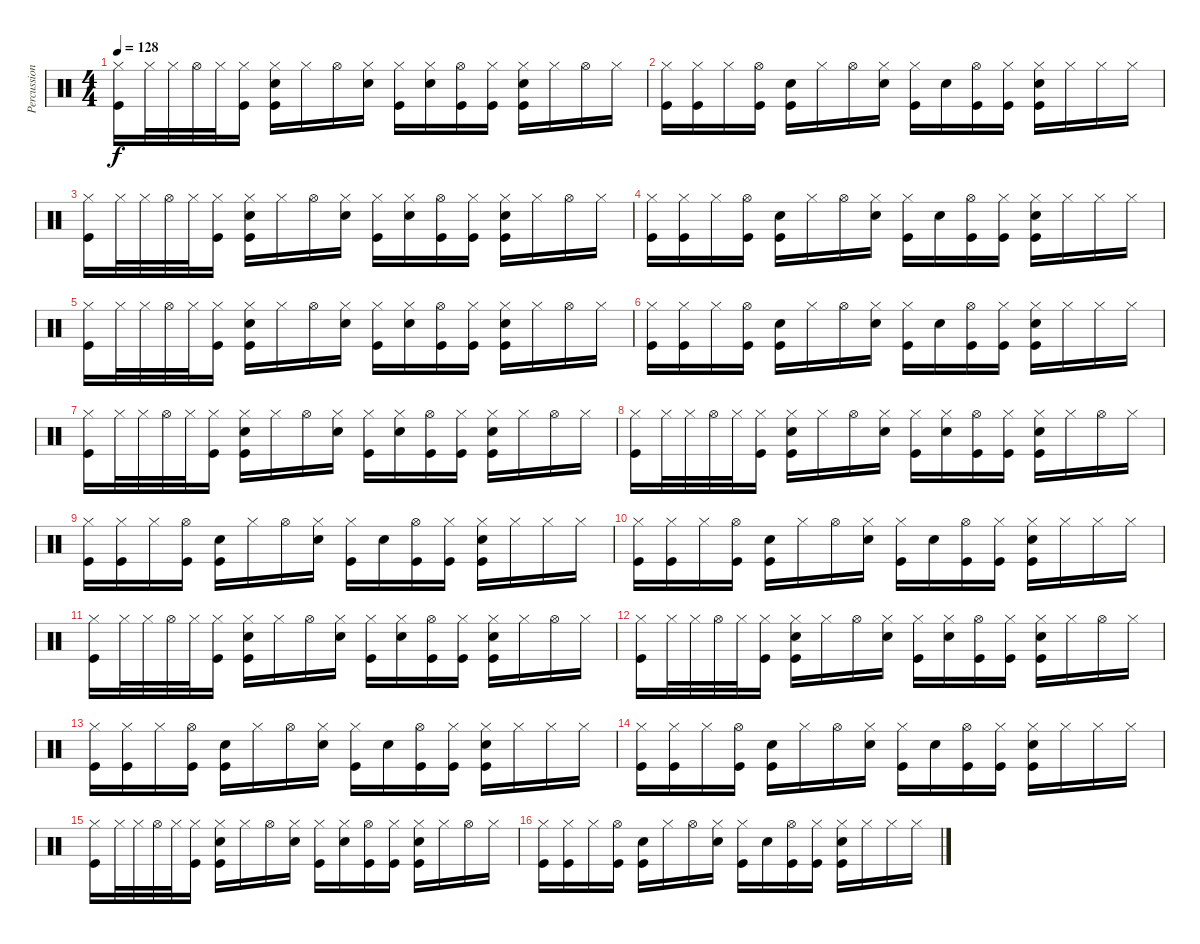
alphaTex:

\track ("Percussion" "Percussion") {instrument percussion}
\staff {score}
\articulation defaults
\ts (4 4)
\tempo 128
\clef neutral
\ks c
("Kick (hit)" "Hi-Hat (closed)").16{dy f} "Hi-Hat (closed)".32 "Hi-Hat (closed)".32 "Hi-Hat (open)".32 "Hi-Hat (closed)".32 ("Kick (hit)" "Hi-Hat (closed)").16 ("Kick (hit)" "Snare (hit) 2" "Hi-Hat (closed)").16 "Hi-Hat (closed)".16 "Hi-Hat (open)".16 ("Snare (hit) 2" "Hi-Hat (closed)").16 ("Kick (hit)" "Hi-Hat (closed)").16 ("Snare (hit) 2" "Hi-Hat (closed)").16 ("Kick (hit)" "Hi-Hat (open)").16 ("Kick (hit)" "Hi-Hat (closed)").16 ("Kick (hit)" "Snare (hit) 2" "Hi-Hat (closed)").16 "Hi-Hat (closed)".16 "Hi-Hat (open)".16 "Hi-Hat (closed)".16 |
("Kick (hit)" "Hi-Hat (closed)").16 ("Kick (hit)" "Hi-Hat (closed)").16 "Hi-Hat (closed)".16 ("Kick (hit)" "Hi-Hat (open)").16 ("Kick (hit)" "Snare (hit) 2").16 "Hi-Hat (closed)".16 "Hi-Hat (open)".16 ("Snare (hit) 2" "Hi-Hat (closed)").16 ("Kick (hit)" "Hi-Hat (closed)").16 "Snare (hit) 2".16 ("Kick (hit)" "Hi-Hat (open)").16 ("Kick (hit)" "Hi-Hat (closed)").16 ("Kick (hit)" "Snare (hit) 2" "Hi-Hat (closed)").16 "Hi-Hat (closed)".16 "Hi-Hat (closed)".16 "Hi-Hat (closed)".16 |
("Kick (hit)" "Hi-Hat (closed)").16 "Hi-Hat (closed)".32 "Hi-Hat (closed)".32 "Hi-Hat (open)".32 "Hi-Hat (closed)".32 ("Kick (hit)" "Hi-Hat (closed)").16 ("Kick (hit)" "Snare (hit) 2" "Hi-Hat (closed)").16 "Hi-Hat (closed)".16 "Hi-Hat (open)".16 ("Snare (hit) 2" "Hi-Hat (closed)").16 ("Kick (hit)" "Hi-Hat (closed)").16 ("Snare (hit) 2" "Hi-Hat (closed)").16 ("Kick (hit)" "Hi-Hat (open)").16 ("Kick (hit)" "Hi-Hat (closed)").16 ("Kick (hit)" "Snare (hit) 2" "Hi-Hat (closed)").16 "Hi-Hat (closed)".16 "Hi-Hat (open)".16 "Hi-Hat (closed)".16 |
("Kick (hit)" "Hi-Hat (closed)").16 ("Kick (hit)" "Hi-Hat (closed)").16 "Hi-Hat (closed)".16 ("Kick (hit)" "Hi-Hat (open)").16 ("Kick (hit)" "Snare (hit) 2").16 "Hi-Hat (closed)".16 "Hi-Hat (open)".16 ("Snare (hit) 2" "Hi-Hat (closed)").16 ("Kick (hit)" "Hi-Hat (closed)").16 "Snare (hit) 2".16 ("Kick (hit)" "Hi-Hat (open)").16 ("Kick (hit)" "Hi-Hat (closed)").16 ("Kick (hit)" "Snare (hit) 2" "Hi-Hat (closed)").16 "Hi-Hat (closed)".16 "Hi-Hat (closed)".16 "Hi-Hat (closed)".16 |
("Kick (hit)" "Hi-Hat (closed)").16 "Hi-Hat (closed)".32 "Hi-Hat (closed)".32 "Hi-Hat (open)".32 "Hi-Hat (closed)".32 ("Kick (hit)" "Hi-Hat (closed)").16 ("Kick (hit)" "Snare (hit) 2" "Hi-Hat (closed)").16 "Hi-Hat (closed)".16 "Hi-Hat (open)".16 ("Snare (hit) 2" "Hi-Hat (closed)").16 ("Kick (hit)" "Hi-Hat (closed)").16 ("Snare (hit) 2" "Hi-Hat (closed)").16 ("Kick (hit)" "Hi-Hat (open)").16 ("Kick (hit)" "Hi-Hat (closed)").16 ("Kick (hit)" "Snare (hit) 2" "Hi-Hat (closed)").16 "Hi-Hat (closed)".16 "Hi-Hat (open)".16 "Hi-Hat (closed)".16 |
("Kick (hit)" "Hi-Hat (closed)").16 ("Kick (hit)" "Hi-Hat (closed)").16 "Hi-Hat (closed)".16 ("Kick (hit)" "Hi-Hat (open)").16 ("Kick (hit)" "Snare (hit) 2").16 "Hi-Hat (closed)".16 "Hi-Hat (open)".16 ("Snare (hit) 2" "Hi-Hat (closed)").16 ("Kick (hit)" "Hi-Hat (closed)").16 "Snare (hit) 2".16 ("Kick (hit)" "Hi-Hat (open)").16 ("Kick (hit)" "Hi-Hat (closed)").16 ("Kick (hit)" "Snare (hit) 2" "Hi-Hat (closed)").16 "Hi-Hat (closed)".16 "Hi-Hat (closed)".16 "Hi-Hat (closed)".16 |
("Kick (hit)" "Hi-Hat (closed)").16 "Hi-Hat (closed)".32 "Hi-Hat (closed)".32 "Hi-Hat (open)".32 "Hi-Hat (closed)".32 ("Kick (hit)" "Hi-Hat (closed)").16 ("Kick (hit)" "Snare (hit) 2" "Hi-Hat (closed)").16 "Hi-Hat (closed)".16 "Hi-Hat (open)".16 ("Snare (hit) 2" "Hi-Hat (closed)").16 ("Kick (hit)" "Hi-Hat (closed)").16 ("Snare (hit) 2" "Hi-Hat (closed)").16 ("Kick (hit)" "Hi-Hat (open)").16 ("Kick (hit)" "Hi-Hat (closed)").16 ("Kick (hit)" "Snare (hit) 2" "Hi-Hat (closed)").16 "Hi-Hat (closed)".16 "Hi-Hat (open)".16 "Hi-Hat (closed)".16 |
("Kick (hit)" "Hi-Hat (closed)").16 "Hi-Hat (closed)".32 "Hi-Hat (closed)".32 "Hi-Hat (open)".32 "Hi-Hat (closed)".32 ("Kick (hit)" "Hi-Hat (closed)").16 ("Kick (hit)" "Snare (hit) 2" "Hi-Hat (closed)").16 "Hi-Hat (closed)".16 "Hi-Hat (open)".16 ("Snare (hit) 2" "Hi-Hat (closed)").16 ("Kick (hit)" "Hi-Hat (closed)").16 ("Snare (hit) 2" "Hi-Hat (closed)").16 ("Kick (hit)" "Hi-Hat (open)").16 ("Kick (hit)" "Hi-Hat (closed)").16 ("Kick (hit)" "Snare (hit) 2" "Hi-Hat (closed)").16 "Hi-Hat (closed)".16 "Hi-Hat (open)".16 "Hi-Hat (closed)".16 |
("Kick (hit)" "Hi-Hat (closed)").16 ("Kick (hit)" "Hi-Hat (closed)").16 "Hi-Hat (closed)".16 ("Kick (hit)" "Hi-Hat (open)").16 ("Kick (hit)" "Snare (hit) 2").16 "Hi-Hat (closed)".16 "Hi-Hat (open)".16 ("Snare (hit) 2" "Hi-Hat (closed)").16 ("Kick (hit)" "Hi-Hat (closed)").16 "Snare (hit) 2".16 ("Kick (hit)" "Hi-Hat (open)").16 ("Kick (hit)" "Hi-Hat (closed)").16 ("Kick (hit)" "Snare (hit) 2" "Hi-Hat (closed)").16 "Hi-Hat (closed)".16 "Hi-Hat (closed)".16 "Hi-Hat (closed)".16 |
("Kick (hit)" "Hi-Hat (closed)").16 ("Kick (hit)" "Hi-Hat (closed)").16 "Hi-Hat (closed)".16 ("Kick (hit)" "Hi-Hat (open)").16 ("Kick (hit)" "Snare (hit) 2").16 "Hi-Hat (closed)".16 "Hi-Hat (open)".16 ("Snare (hit) 2" "Hi-Hat (closed)").16 ("Kick (hit)" "Hi-Hat (closed)").16 "Snare (hit) 2".16 ("Kick (hit)" "Hi-Hat (open)").16 ("Kick (hit)" "Hi-Hat (closed)").16 ("Kick (hit)" "Snare (hit) 2" "Hi-Hat (closed)").16 "Hi-Hat (closed)".16 "Hi-Hat (closed)".16 "Hi-Hat (closed)".16 |
("Kick (hit)" "Hi-Hat (closed)").16 "Hi-Hat (closed)".32 "Hi-Hat (closed)".32 "Hi-Hat (open)".32 "Hi-Hat (closed)".32 ("Kick (hit)" "Hi-Hat (closed)").16 ("Kick (hit)" "Snare (hit) 2" "Hi-Hat (closed)").16 "Hi-Hat (closed)".16 "Hi-Hat (open)".16 ("Snare (hit) 2" "Hi-Hat (closed)").16 ("Kick (hit)" "Hi-Hat (closed)").16 ("Snare (hit) 2" "Hi-Hat (closed)").16 ("Kick (hit)" "Hi-Hat (open)").16 ("Kick (hit)" "Hi-Hat (closed)").16 ("Kick (hit)" "Snare (hit) 2" "Hi-Hat (closed)").16 "Hi-Hat (closed)".16 "Hi-Hat (open)".16 "Hi-Hat (closed)".16 |
("Kick (hit)" "Hi-Hat (closed)").16 "Hi-Hat (closed)".32 "Hi-Hat (closed)".32 "Hi-Hat (open)".32 "Hi-Hat (closed)".32 ("Kick (hit)" "Hi-Hat (closed)").16 ("Kick (hit)" "Snare (hit) 2" "Hi-Hat (closed)").16 "Hi-Hat (closed)".16 "Hi-Hat (open)".16 ("Snare (hit) 2" "Hi-Hat (closed)").16 ("Kick (hit)" "Hi-Hat (closed)").16 ("Snare (hit) 2" "Hi-Hat (closed)").16 ("Kick (hit)" "Hi-Hat (open)").16 ("Kick (hit)" "Hi-Hat (closed)").16 ("Kick (hit)" "Snare (hit) 2" "Hi-Hat (closed)").16 "Hi-Hat (closed)".16 "Hi-Hat (open)".16 "Hi-Hat (closed)".16 |
("Kick (hit)" "Hi-Hat (closed)").16 ("Kick (hit)" "Hi-Hat (closed)").16 "Hi-Hat (closed)".16 ("Kick (hit)" "Hi-Hat (open)").16 ("Kick (hit)" "Snare (hit) 2").16 "Hi-Hat (closed)".16 "Hi-Hat (open)".16 ("Snare (hit) 2" "Hi-Hat (closed)").16 ("Kick (hit)" "Hi-Hat (closed)").16 "Snare (hit) 2".16 ("Kick (hit)" "Hi-Hat (open)").16 ("Kick (hit)" "Hi-Hat (closed)").16 ("Kick (hit)" "Snare (hit) 2" "Hi-Hat (closed)").16 "Hi-Hat (closed)".16 "Hi-Hat (closed)".16 "Hi-Hat (closed)".16 |
("Kick (hit)" "Hi-Hat (closed)").16 ("Kick (hit)" "Hi-Hat (closed)").16 "Hi-Hat (closed)".16 ("Kick (hit)" "Hi-Hat (open)").16 ("Kick (hit)" "Snare (hit) 2").16 "Hi-Hat (closed)".16 "Hi-Hat (open)".16 ("Snare (hit) 2" "Hi-Hat (closed)").16 ("Kick (hit)" "Hi-Hat (closed)").16 "Snare (hit) 2".16 ("Kick (hit)" "Hi-Hat (open)").16 ("Kick (hit)" "Hi-Hat (closed)").16 ("Kick (hit)" "Snare (hit) 2" "Hi-Hat (closed)").16 "Hi-Hat (closed)".16 "Hi-Hat (closed)".16 "Hi-Hat (closed)".16 |
("Kick (hit)" "Hi-Hat (closed)").16 "Hi-Hat (closed)".32 "Hi-Hat (closed)".32 "Hi-Hat (open)".32 "Hi-Hat (closed)".32 ("Kick (hit)" "Hi-Hat (closed)").16 ("Kick (hit)" "Snare (hit) 2" "Hi-Hat (closed)").16 "Hi-Hat (closed)".16 "Hi-Hat (open)".16 ("Snare (hit) 2" "Hi-Hat (closed)").16 ("Kick (hit)" "Hi-Hat (closed)").16 ("Snare (hit) 2" "Hi-Hat (closed)").16 ("Kick (hit)" "Hi-Hat (open)").16 ("Kick (hit)" "Hi-Hat (closed)").16 ("Kick (hit)" "Snare (hit) 2" "Hi-Hat (closed)").16 "Hi-Hat (closed)".16 "Hi-Hat (open)".16 "Hi-Hat (closed)".16 |
("Kick (hit)" "Hi-Hat (closed)").16 ("Kick (hit)" "Hi-Hat (closed)").16 "Hi-Hat (closed)".16 ("Kick (hit)" "Hi-Hat (open)").16 ("Kick (hit)" "Snare (hit) 2").16 "Hi-Hat (closed)".16 "Hi-Hat (open)".16 ("Snare (hit) 2" "Hi-Hat (closed)").16 ("Kick (hit)" "Hi-Hat (closed)").16 "Snare (hit) 2".16 ("Kick (hit)" "Hi-Hat (open)").16 ("Kick (hit)" "Hi-Hat (closed)").16 ("Kick (hit)" "Snare (hit) 2" "Hi-Hat (closed)").16 "Hi-Hat (closed)".16 "Hi-Hat (closed)".16 "Hi-Hat (closed)".16
